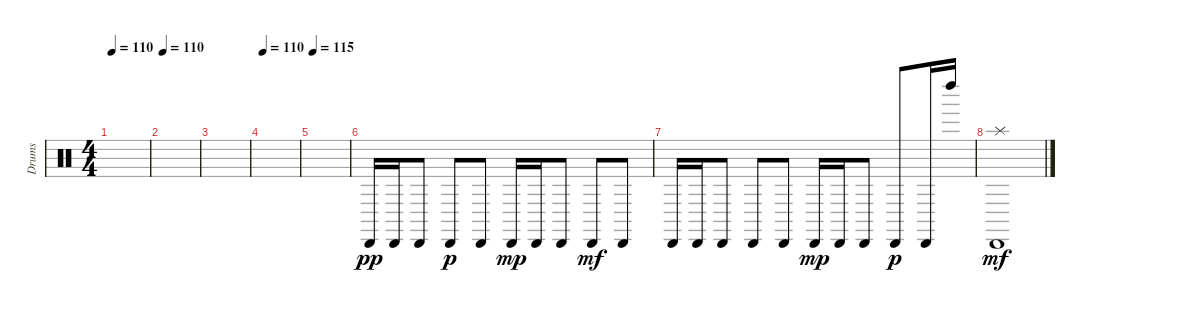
\track ("Drums" "Drums") {instrument percussion}
\staff {score}
\articulation defaults
\ts (4 4)
\tempo 110
\clef neutral
\ks c
|
\tempo 110
|
|
\tempo 110
|
\tempo 115
|
"Cabasa (hit)".16{dy pp} "Cabasa (hit)".16 "Cabasa (hit)".8 "Cabasa (hit)".8{dy p} "Cabasa (hit)".8 "Cabasa (hit)".16{dy mp} "Cabasa (hit)".16 "Cabasa (hit)".8 "Cabasa (hit)".8{dy mf} "Cabasa (hit)".8 |
"Cabasa (hit)".16 "Cabasa (hit)".16 "Cabasa (hit)".8 "Cabasa (hit)".8 "Cabasa (hit)".8 "Cabasa (hit)".16{dy mp} "Cabasa (hit)".16 "Cabasa (hit)".8 "Cabasa (hit)".8{dy p} "Cabasa (hit)".16 "Left Maraca (hit)".16 |
("Splash (hit)" "Cabasa (hit)").1{dy mf}
